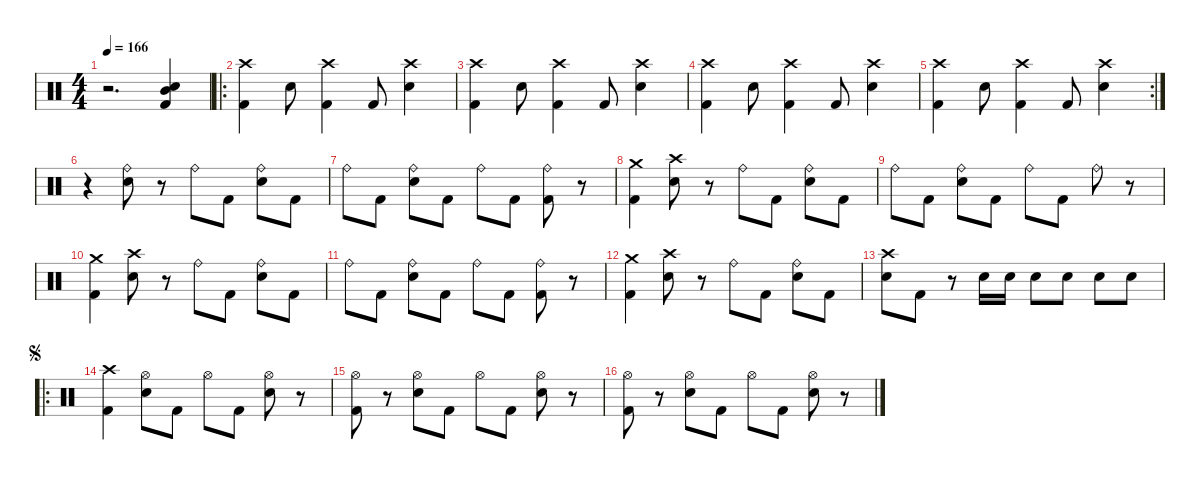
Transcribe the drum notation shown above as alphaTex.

\defaultSystemsLayout 4
\hideDynamics
\bracketExtendMode nobrackets
\singleTrackTrackNamePolicy hidden
\multiTrackTrackNamePolicy hidden
\firstSystemTrackNameMode fullname
\otherSystemsTrackNameOrientation horizontal
\track ("Drums" "drm.") {instrument percussion}
\staff {score}
\articulation defaults
\ts (4 4)
\beaming (8 2 2 2 2)
\tempo 166
\clef neutral
\ks c
r.2{d dy f beam Down} ("Kick (hit) 2" "Snare (hit) 2" "Mid Tom (hit)").4{beam Up} |
\ro
("Kick (hit) 2" "Crash high (hit)").4{beam Down} "Snare (hit) 2".8{beam Down} ("Kick (hit) 2" "Crash high (hit)").4{beam Down} "Kick (hit) 2".8{beam Up} ("Snare (hit) 2" "Crash high (hit)").4{beam Down} |
("Kick (hit) 2" "Crash high (hit)").4{beam Down} "Snare (hit) 2".8{beam Down} ("Kick (hit) 2" "Crash high (hit)").4{beam Down} "Kick (hit) 2".8{beam Up} ("Snare (hit) 2" "Crash high (hit)").4{beam Down} |
("Kick (hit) 2" "Crash high (hit)").4{beam Down} "Snare (hit) 2".8{beam Down} ("Kick (hit) 2" "Crash high (hit)").4{beam Down} "Kick (hit) 2".8{beam Up} ("Snare (hit) 2" "Crash high (hit)").4{beam Down} |
\rc 2
("Kick (hit) 2" "Crash high (hit)").4{beam Down} "Snare (hit) 2".8{beam Down} ("Kick (hit) 2" "Crash high (hit)").4{beam Down} "Kick (hit) 2".8{beam Up} ("Snare (hit) 2" "Crash high (hit)").4{beam Down} |
r.4{beam Down} ("Snare (hit) 2" "Ride (bell)").8{beam Down} r.8{beam Down} "Ride (bell)".8{beam Down} "Kick (hit) 2".8{beam Down} ("Snare (hit) 2" "Ride (bell)").8{beam Down} "Kick (hit) 2".8{beam Down} |
"Ride (bell)".8{beam Down} "Kick (hit) 2".8{beam Down} ("Snare (hit) 2" "Ride (bell)").8{beam Down} "Kick (hit) 2".8{beam Down} "Ride (bell)".8{beam Down} "Kick (hit) 2".8{beam Down} ("Ride (bell)" "Kick (hit) 2").8{beam Down} r.8{beam Down} |
("Crash medium (hit)" "Kick (hit) 2").4{beam Down} ("Snare (hit) 2" "Crash high (hit)").8{beam Down} r.8{beam Down} "Ride (bell)".8{beam Down} "Kick (hit) 2".8{beam Down} ("Snare (hit) 2" "Ride (bell)").8{beam Down} "Kick (hit) 2".8{beam Down} |
"Ride (bell)".8{beam Down} "Kick (hit) 2".8{beam Down} ("Snare (hit) 2" "Ride (bell)").8{beam Down} "Kick (hit) 2".8{beam Down} "Ride (bell)".8{beam Down} "Kick (hit) 2".8{beam Down} "Ride (bell)".8{beam Down} r.8{beam Down} |
("Kick (hit) 2" "Crash medium (hit)").4{beam Down} ("Snare (hit) 2" "Crash high (hit)").8{beam Down} r.8{beam Down} "Ride (bell)".8{beam Down} "Kick (hit) 2".8{beam Down} ("Snare (hit) 2" "Ride (bell)").8{beam Down} "Kick (hit) 2".8{beam Down} |
"Ride (bell)".8{beam Down} "Kick (hit) 2".8{beam Down} ("Snare (hit) 2" "Ride (bell)").8{beam Down} "Kick (hit) 2".8{beam Down} "Ride (bell)".8{beam Down} "Kick (hit) 2".8{beam Down} ("Ride (bell)" "Kick (hit) 2").8{beam Down} r.8{beam Down} |
("Crash medium (hit)" "Kick (hit) 2").4{beam Down} ("Snare (hit) 2" "Crash high (hit)").8{beam Down} r.8{beam Down} "Ride (bell)".8{beam Down} "Kick (hit) 2".8{beam Down} ("Snare (hit) 2" "Ride (bell)").8{beam Down} "Kick (hit) 2".8{beam Down} |
("Crash high (hit)" "Snare (hit) 2").8{beam Down} "Kick (hit) 2".8{beam Down} r.8{beam Down} "Snare (hit) 2".16{beam Down} "Snare (hit) 2".16{beam Down} "Snare (hit) 2".8{beam Down} "Snare (hit) 2".8{beam Down} "Snare (hit) 2".8{beam Down} "Snare (hit) 2".8{beam Down} |
\ro
\jump segno
("Kick (hit) 2" "Crash high (hit)").4{beam Down} ("Snare (hit) 2" "Hi-Hat (open)").8{beam Down} "Kick (hit) 2".8{beam Down} "Hi-Hat (open)".8{beam Down} "Kick (hit) 2".8{beam Down} ("Snare (hit) 2" "Hi-Hat (open)").8{beam Down} r.8{beam Down} |
("Hi-Hat (open)" "Kick (hit) 2").8{beam Down} r.8{beam Down} ("Snare (hit) 2" "Hi-Hat (open)").8{beam Down} "Kick (hit) 2".8{beam Down} "Hi-Hat (open)".8{beam Down} "Kick (hit) 2".8{beam Down} ("Snare (hit) 2" "Hi-Hat (open)").8{beam Down} r.8{beam Down} |
("Hi-Hat (open)" "Kick (hit) 2").8{beam Down} r.8{beam Down} ("Snare (hit) 2" "Hi-Hat (open)").8{beam Down} "Kick (hit) 2".8{beam Down} "Hi-Hat (open)".8{beam Down} "Kick (hit) 2".8{beam Down} ("Snare (hit) 2" "Hi-Hat (open)").8{beam Down} r.8{beam Down}
